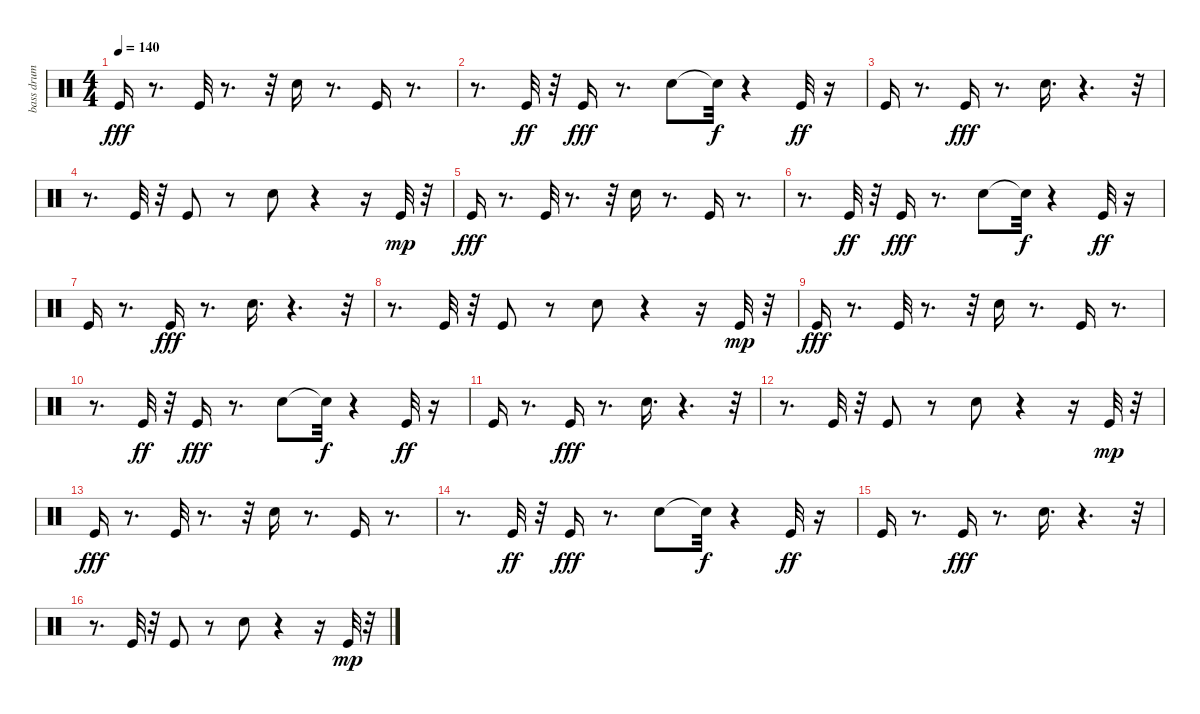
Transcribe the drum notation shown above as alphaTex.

\track ("bass drum" "bass drum") {instrument percussion}
\staff {score}
\articulation defaults
\ts (4 4)
\tempo 140
\clef neutral
\ks c "Kick (hit)".16{dy fff}
r.8{d} "Kick (hit)".32 r.8{d} r.32 "Electric Snare (hit)".16 r.8{d} "Kick (hit)".16 r.8{d} |
r.8{d} "Kick (hit)".32{dy ff} r.32 "Kick (hit)".16{dy fff} r.8{d} "Electric Snare (hit)".8 "Snare (hit)"{t}.32{dy f} r.4 "Kick (hit)".32{dy ff} r.16 |
"Kick (hit)".16 r.8{d} "Kick (hit)".16{dy fff} r.8{d} "Electric Snare (hit)".16{d} r.4{d} r.32 |
r.8{d} "Kick (hit)".32 r.32 "Kick (hit)".8 r.8 "Electric Snare (hit)".8 r.4 r.16 "Kick (hit)".32{dy mp} r.32 |
"Kick (hit)".16{dy fff} r.8{d} "Kick (hit)".32 r.8{d} r.32 "Electric Snare (hit)".16 r.8{d} "Kick (hit)".16 r.8{d} |
r.8{d} "Kick (hit)".32{dy ff} r.32 "Kick (hit)".16{dy fff} r.8{d} "Electric Snare (hit)".8 "Snare (hit)"{t}.32{dy f} r.4 "Kick (hit)".32{dy ff} r.16 |
"Kick (hit)".16 r.8{d} "Kick (hit)".16{dy fff} r.8{d} "Electric Snare (hit)".16{d} r.4{d} r.32 |
r.8{d} "Kick (hit)".32 r.32 "Kick (hit)".8 r.8 "Electric Snare (hit)".8 r.4 r.16 "Kick (hit)".32{dy mp} r.32 |
"Kick (hit)".16{dy fff} r.8{d} "Kick (hit)".32 r.8{d} r.32 "Electric Snare (hit)".16 r.8{d} "Kick (hit)".16 r.8{d} |
r.8{d} "Kick (hit)".32{dy ff} r.32 "Kick (hit)".16{dy fff} r.8{d} "Electric Snare (hit)".8 "Snare (hit)"{t}.32{dy f} r.4 "Kick (hit)".32{dy ff} r.16 |
"Kick (hit)".16 r.8{d} "Kick (hit)".16{dy fff} r.8{d} "Electric Snare (hit)".16{d} r.4{d} r.32 |
r.8{d} "Kick (hit)".32 r.32 "Kick (hit)".8 r.8 "Electric Snare (hit)".8 r.4 r.16 "Kick (hit)".32{dy mp} r.32 |
"Kick (hit)".16{dy fff} r.8{d} "Kick (hit)".32 r.8{d} r.32 "Electric Snare (hit)".16 r.8{d} "Kick (hit)".16 r.8{d} |
r.8{d} "Kick (hit)".32{dy ff} r.32 "Kick (hit)".16{dy fff} r.8{d} "Electric Snare (hit)".8 "Snare (hit)"{t}.32{dy f} r.4 "Kick (hit)".32{dy ff} r.16 |
"Kick (hit)".16 r.8{d} "Kick (hit)".16{dy fff} r.8{d} "Electric Snare (hit)".16{d} r.4{d} r.32 |
r.8{d} "Kick (hit)".32 r.32 "Kick (hit)".8 r.8 "Electric Snare (hit)".8 r.4 r.16 "Kick (hit)".32{dy mp} r.32
